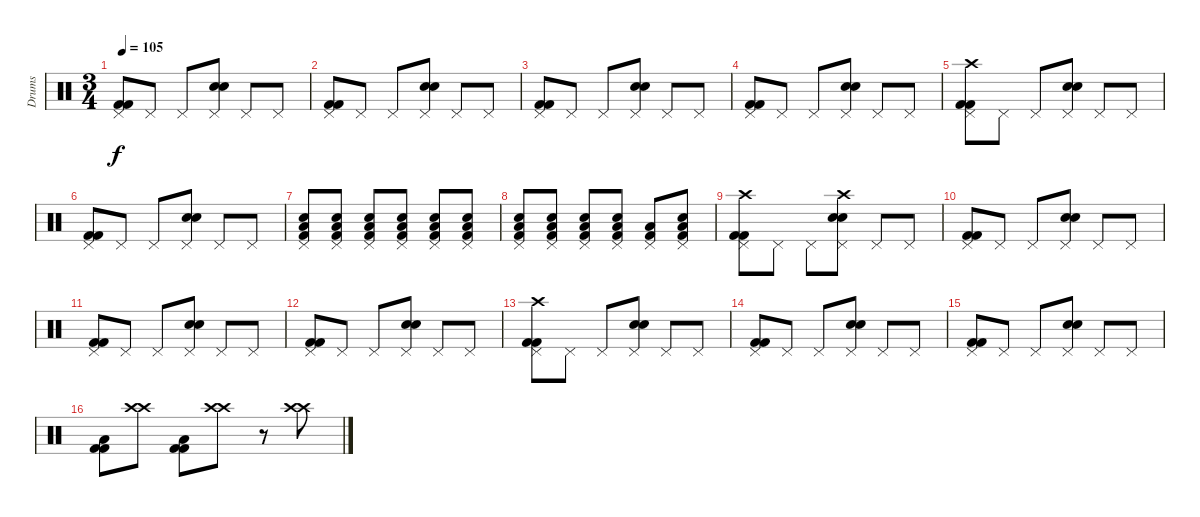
\track ("Drums" "Drums") {instrument percussion}
\staff {score}
\articulation defaults
\ts (3 4)
\tempo 105
\clef neutral
\ks c
("Pedal Hi-Hat (hit)" "Kick (hit) 2" "Kick (hit) 2").8{dy f} "Pedal Hi-Hat (hit)".8 "Pedal Hi-Hat (hit)".8 ("Pedal Hi-Hat (hit)" "Electric Snare (hit)" "Electric Snare (hit)").8 "Pedal Hi-Hat (hit)".8 "Pedal Hi-Hat (hit)".8 |
("Pedal Hi-Hat (hit)" "Kick (hit) 2" "Kick (hit) 2").8 "Pedal Hi-Hat (hit)".8 "Pedal Hi-Hat (hit)".8 ("Pedal Hi-Hat (hit)" "Electric Snare (hit)" "Electric Snare (hit)").8 "Pedal Hi-Hat (hit)".8 "Pedal Hi-Hat (hit)".8 |
("Pedal Hi-Hat (hit)" "Kick (hit) 2" "Kick (hit) 2").8 "Pedal Hi-Hat (hit)".8 "Pedal Hi-Hat (hit)".8 ("Pedal Hi-Hat (hit)" "Electric Snare (hit)" "Electric Snare (hit)").8 "Pedal Hi-Hat (hit)".8 "Pedal Hi-Hat (hit)".8 |
("Pedal Hi-Hat (hit)" "Kick (hit) 2" "Kick (hit) 2").8 "Pedal Hi-Hat (hit)".8 "Pedal Hi-Hat (hit)".8 ("Pedal Hi-Hat (hit)" "Electric Snare (hit)" "Electric Snare (hit)").8 "Pedal Hi-Hat (hit)".8 "Pedal Hi-Hat (hit)".8 |
("Pedal Hi-Hat (hit)" "Crash high (hit)" "Kick (hit) 2" "Kick (hit) 2").8 "Pedal Hi-Hat (hit)".8 "Pedal Hi-Hat (hit)".8 ("Pedal Hi-Hat (hit)" "Electric Snare (hit)" "Electric Snare (hit)").8 "Pedal Hi-Hat (hit)".8 "Pedal Hi-Hat (hit)".8 |
("Pedal Hi-Hat (hit)" "Kick (hit) 2" "Kick (hit) 2").8 "Pedal Hi-Hat (hit)".8 "Pedal Hi-Hat (hit)".8 ("Pedal Hi-Hat (hit)" "Electric Snare (hit)" "Electric Snare (hit)").8 "Pedal Hi-Hat (hit)".8 "Pedal Hi-Hat (hit)".8 |
("Low Tom (hit)" "Pedal Hi-Hat (hit)" "Snare (hit) 2" "Kick (hit) 2").8 ("Low Tom (hit)" "Pedal Hi-Hat (hit)" "Snare (hit) 2" "Kick (hit) 2").8 ("Low Tom (hit)" "Pedal Hi-Hat (hit)" "Snare (hit) 2" "Kick (hit) 2").8 ("Low Tom (hit)" "Pedal Hi-Hat (hit)" "Snare (hit) 2" "Kick (hit) 2").8 ("Low Tom (hit)" "Pedal Hi-Hat (hit)" "Snare (hit) 2" "Kick (hit) 2").8 ("Low Tom (hit)" "Pedal Hi-Hat (hit)" "Snare (hit) 2" "Kick (hit) 2").8 |
("Low Tom (hit)" "Pedal Hi-Hat (hit)" "Snare (hit) 2" "Kick (hit) 2").8 ("Low Tom (hit)" "Pedal Hi-Hat (hit)" "Snare (hit) 2" "Kick (hit) 2").8 ("Low Tom (hit)" "Pedal Hi-Hat (hit)" "Snare (hit) 2" "Kick (hit) 2").8 ("Low Tom (hit)" "Pedal Hi-Hat (hit)" "Snare (hit) 2" "Kick (hit) 2").8 ("Low Tom (hit)" "Pedal Hi-Hat (hit)" "Kick (hit) 2").8 ("Low Tom (hit)" "Pedal Hi-Hat (hit)" "Snare (hit) 2" "Kick (hit) 2").8 |
("Pedal Hi-Hat (hit)" "Crash high (hit)" "Kick (hit) 2" "Kick (hit) 2").8 "Pedal Hi-Hat (hit)".8 "Pedal Hi-Hat (hit)".8 ("Pedal Hi-Hat (hit)" "Crash high (hit)" "Electric Snare (hit)" "Electric Snare (hit)").8 "Pedal Hi-Hat (hit)".8 "Pedal Hi-Hat (hit)".8 |
("Pedal Hi-Hat (hit)" "Kick (hit) 2" "Kick (hit) 2").8 "Pedal Hi-Hat (hit)".8 "Pedal Hi-Hat (hit)".8 ("Pedal Hi-Hat (hit)" "Electric Snare (hit)" "Electric Snare (hit)").8 "Pedal Hi-Hat (hit)".8 "Pedal Hi-Hat (hit)".8 |
("Pedal Hi-Hat (hit)" "Kick (hit) 2" "Kick (hit) 2").8 "Pedal Hi-Hat (hit)".8 "Pedal Hi-Hat (hit)".8 ("Pedal Hi-Hat (hit)" "Electric Snare (hit)" "Electric Snare (hit)").8 "Pedal Hi-Hat (hit)".8 "Pedal Hi-Hat (hit)".8 |
("Pedal Hi-Hat (hit)" "Kick (hit) 2" "Kick (hit) 2").8 "Pedal Hi-Hat (hit)".8 "Pedal Hi-Hat (hit)".8 ("Pedal Hi-Hat (hit)" "Electric Snare (hit)" "Electric Snare (hit)").8 "Pedal Hi-Hat (hit)".8 "Pedal Hi-Hat (hit)".8 |
("Pedal Hi-Hat (hit)" "Crash high (hit)" "Kick (hit) 2" "Kick (hit) 2").8 "Pedal Hi-Hat (hit)".8 "Pedal Hi-Hat (hit)".8 ("Pedal Hi-Hat (hit)" "Electric Snare (hit)" "Electric Snare (hit)").8 "Pedal Hi-Hat (hit)".8 "Pedal Hi-Hat (hit)".8 |
("Pedal Hi-Hat (hit)" "Kick (hit) 2" "Kick (hit) 2").8 "Pedal Hi-Hat (hit)".8 "Pedal Hi-Hat (hit)".8 ("Pedal Hi-Hat (hit)" "Electric Snare (hit)" "Electric Snare (hit)").8 "Pedal Hi-Hat (hit)".8 "Pedal Hi-Hat (hit)".8 |
("Pedal Hi-Hat (hit)" "Kick (hit) 2" "Kick (hit) 2").8 "Pedal Hi-Hat (hit)".8 "Pedal Hi-Hat (hit)".8 ("Pedal Hi-Hat (hit)" "Electric Snare (hit)" "Electric Snare (hit)").8 "Pedal Hi-Hat (hit)".8 "Pedal Hi-Hat (hit)".8 |
("Low Floor Tom (hit)" "Kick (hit) 2" "Kick (hit) 2").8 ("Crash high (hit)" "Crash high (hit)").8 ("Low Floor Tom (hit)" "Kick (hit) 2" "Kick (hit) 2").8 ("Crash high (hit)" "Crash high (hit)").8 r.8 ("Crash high (hit)" "Crash high (hit)").8
